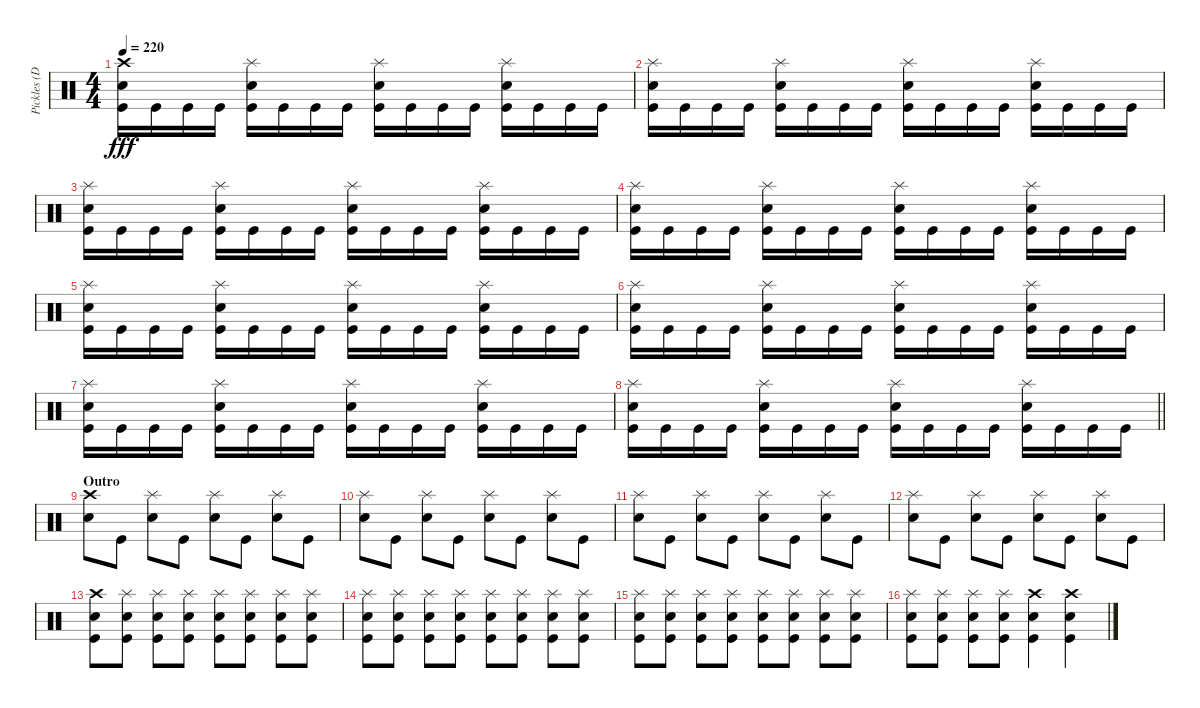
\track ("Pickles (Drums)" "Pickles (D") {instrument percussion}
\staff {score}
\articulation defaults
\ts (4 4)
\tempo 220
\clef neutral
\ks c
("Crash high (hit)" "Electric Snare (hit)" "Kick (hit)").16{dy fff} "Kick (hit)".16 "Kick (hit)".16 "Kick (hit)".16 ("Splash (hit)" "Electric Snare (hit)" "Kick (hit)").16 "Kick (hit)".16 "Kick (hit)".16 "Kick (hit)".16 ("Splash (hit)" "Electric Snare (hit)" "Kick (hit)").16 "Kick (hit)".16 "Kick (hit)".16 "Kick (hit)".16 ("Splash (hit)" "Electric Snare (hit)" "Kick (hit)").16 "Kick (hit)".16 "Kick (hit)".16 "Kick (hit)".16 |
("Splash (hit)" "Electric Snare (hit)" "Kick (hit)").16 "Kick (hit)".16 "Kick (hit)".16 "Kick (hit)".16 ("Splash (hit)" "Electric Snare (hit)" "Kick (hit)").16 "Kick (hit)".16 "Kick (hit)".16 "Kick (hit)".16 ("Splash (hit)" "Electric Snare (hit)" "Kick (hit)").16 "Kick (hit)".16 "Kick (hit)".16 "Kick (hit)".16 ("Splash (hit)" "Electric Snare (hit)" "Kick (hit)").16 "Kick (hit)".16 "Kick (hit)".16 "Kick (hit)".16 |
("Splash (hit)" "Electric Snare (hit)" "Kick (hit)").16 "Kick (hit)".16 "Kick (hit)".16 "Kick (hit)".16 ("Splash (hit)" "Electric Snare (hit)" "Kick (hit)").16 "Kick (hit)".16 "Kick (hit)".16 "Kick (hit)".16 ("Splash (hit)" "Electric Snare (hit)" "Kick (hit)").16 "Kick (hit)".16 "Kick (hit)".16 "Kick (hit)".16 ("Splash (hit)" "Electric Snare (hit)" "Kick (hit)").16 "Kick (hit)".16 "Kick (hit)".16 "Kick (hit)".16 |
("Splash (hit)" "Electric Snare (hit)" "Kick (hit)").16 "Kick (hit)".16 "Kick (hit)".16 "Kick (hit)".16 ("Splash (hit)" "Electric Snare (hit)" "Kick (hit)").16 "Kick (hit)".16 "Kick (hit)".16 "Kick (hit)".16 ("Splash (hit)" "Electric Snare (hit)" "Kick (hit)").16 "Kick (hit)".16 "Kick (hit)".16 "Kick (hit)".16 ("Splash (hit)" "Electric Snare (hit)" "Kick (hit)").16 "Kick (hit)".16 "Kick (hit)".16 "Kick (hit)".16 |
("Splash (hit)" "Electric Snare (hit)" "Kick (hit)").16 "Kick (hit)".16 "Kick (hit)".16 "Kick (hit)".16 ("Splash (hit)" "Electric Snare (hit)" "Kick (hit)").16 "Kick (hit)".16 "Kick (hit)".16 "Kick (hit)".16 ("Splash (hit)" "Electric Snare (hit)" "Kick (hit)").16 "Kick (hit)".16 "Kick (hit)".16 "Kick (hit)".16 ("Splash (hit)" "Electric Snare (hit)" "Kick (hit)").16 "Kick (hit)".16 "Kick (hit)".16 "Kick (hit)".16 |
("Splash (hit)" "Electric Snare (hit)" "Kick (hit)").16 "Kick (hit)".16 "Kick (hit)".16 "Kick (hit)".16 ("Splash (hit)" "Electric Snare (hit)" "Kick (hit)").16 "Kick (hit)".16 "Kick (hit)".16 "Kick (hit)".16 ("Splash (hit)" "Electric Snare (hit)" "Kick (hit)").16 "Kick (hit)".16 "Kick (hit)".16 "Kick (hit)".16 ("Splash (hit)" "Electric Snare (hit)" "Kick (hit)").16 "Kick (hit)".16 "Kick (hit)".16 "Kick (hit)".16 |
("Splash (hit)" "Electric Snare (hit)" "Kick (hit)").16 "Kick (hit)".16 "Kick (hit)".16 "Kick (hit)".16 ("Splash (hit)" "Electric Snare (hit)" "Kick (hit)").16 "Kick (hit)".16 "Kick (hit)".16 "Kick (hit)".16 ("Splash (hit)" "Electric Snare (hit)" "Kick (hit)").16 "Kick (hit)".16 "Kick (hit)".16 "Kick (hit)".16 ("Splash (hit)" "Electric Snare (hit)" "Kick (hit)").16 "Kick (hit)".16 "Kick (hit)".16 "Kick (hit)".16 |
\barLineRight lightlight
("Splash (hit)" "Electric Snare (hit)" "Kick (hit)").16 "Kick (hit)".16 "Kick (hit)".16 "Kick (hit)".16 ("Splash (hit)" "Electric Snare (hit)" "Kick (hit)").16 "Kick (hit)".16 "Kick (hit)".16 "Kick (hit)".16 ("Splash (hit)" "Electric Snare (hit)" "Kick (hit)").16 "Kick (hit)".16 "Kick (hit)".16 "Kick (hit)".16 ("Splash (hit)" "Electric Snare (hit)" "Kick (hit)").16 "Kick (hit)".16 "Kick (hit)".16 "Kick (hit)".16 |
\section ("" "Outro")
("Crash high (hit)" "Electric Snare (hit)").8 "Kick (hit)".8 ("Splash (hit)" "Electric Snare (hit)").8 "Kick (hit)".8 ("Splash (hit)" "Electric Snare (hit)").8 "Kick (hit)".8 ("Splash (hit)" "Electric Snare (hit)").8 "Kick (hit)".8 |
("Splash (hit)" "Electric Snare (hit)").8 "Kick (hit)".8 ("Splash (hit)" "Electric Snare (hit)").8 "Kick (hit)".8 ("Splash (hit)" "Electric Snare (hit)").8 "Kick (hit)".8 ("Splash (hit)" "Electric Snare (hit)").8 "Kick (hit)".8 |
("Splash (hit)" "Electric Snare (hit)").8 "Kick (hit)".8 ("Splash (hit)" "Electric Snare (hit)").8 "Kick (hit)".8 ("Splash (hit)" "Electric Snare (hit)").8 "Kick (hit)".8 ("Splash (hit)" "Electric Snare (hit)").8 "Kick (hit)".8 |
("Splash (hit)" "Electric Snare (hit)").8 "Kick (hit)".8 ("Splash (hit)" "Electric Snare (hit)").8 "Kick (hit)".8 ("Splash (hit)" "Electric Snare (hit)").8 "Kick (hit)".8 ("Splash (hit)" "Electric Snare (hit)").8 "Kick (hit)".8 |
("Crash high (hit)" "Electric Snare (hit)" "Kick (hit)").8 ("Splash (hit)" "Electric Snare (hit)" "Kick (hit)").8 ("Splash (hit)" "Electric Snare (hit)" "Kick (hit)").8 ("Splash (hit)" "Electric Snare (hit)" "Kick (hit)").8 ("Splash (hit)" "Electric Snare (hit)" "Kick (hit)").8 ("Splash (hit)" "Electric Snare (hit)" "Kick (hit)").8 ("Splash (hit)" "Electric Snare (hit)" "Kick (hit)").8 ("Splash (hit)" "Electric Snare (hit)" "Kick (hit)").8 |
("Splash (hit)" "Electric Snare (hit)" "Kick (hit)").8 ("Splash (hit)" "Electric Snare (hit)" "Kick (hit)").8 ("Splash (hit)" "Electric Snare (hit)" "Kick (hit)").8 ("Splash (hit)" "Electric Snare (hit)" "Kick (hit)").8 ("Splash (hit)" "Electric Snare (hit)" "Kick (hit)").8 ("Splash (hit)" "Electric Snare (hit)" "Kick (hit)").8 ("Splash (hit)" "Electric Snare (hit)" "Kick (hit)").8 ("Splash (hit)" "Electric Snare (hit)" "Kick (hit)").8 |
("Splash (hit)" "Electric Snare (hit)" "Kick (hit)").8 ("Splash (hit)" "Electric Snare (hit)" "Kick (hit)").8 ("Splash (hit)" "Electric Snare (hit)" "Kick (hit)").8 ("Splash (hit)" "Electric Snare (hit)" "Kick (hit)").8 ("Splash (hit)" "Electric Snare (hit)" "Kick (hit)").8 ("Splash (hit)" "Electric Snare (hit)" "Kick (hit)").8 ("Splash (hit)" "Electric Snare (hit)" "Kick (hit)").8 ("Splash (hit)" "Electric Snare (hit)" "Kick (hit)").8 |
("Splash (hit)" "Electric Snare (hit)" "Kick (hit)").8 ("Splash (hit)" "Electric Snare (hit)" "Kick (hit)").8 ("Splash (hit)" "Electric Snare (hit)" "Kick (hit)").8 ("Splash (hit)" "Electric Snare (hit)" "Kick (hit)").8 ("Crash high (hit)" "Electric Snare (hit)" "Kick (hit)").4 ("Crash high (hit)" "Electric Snare (hit)" "Kick (hit)").4
